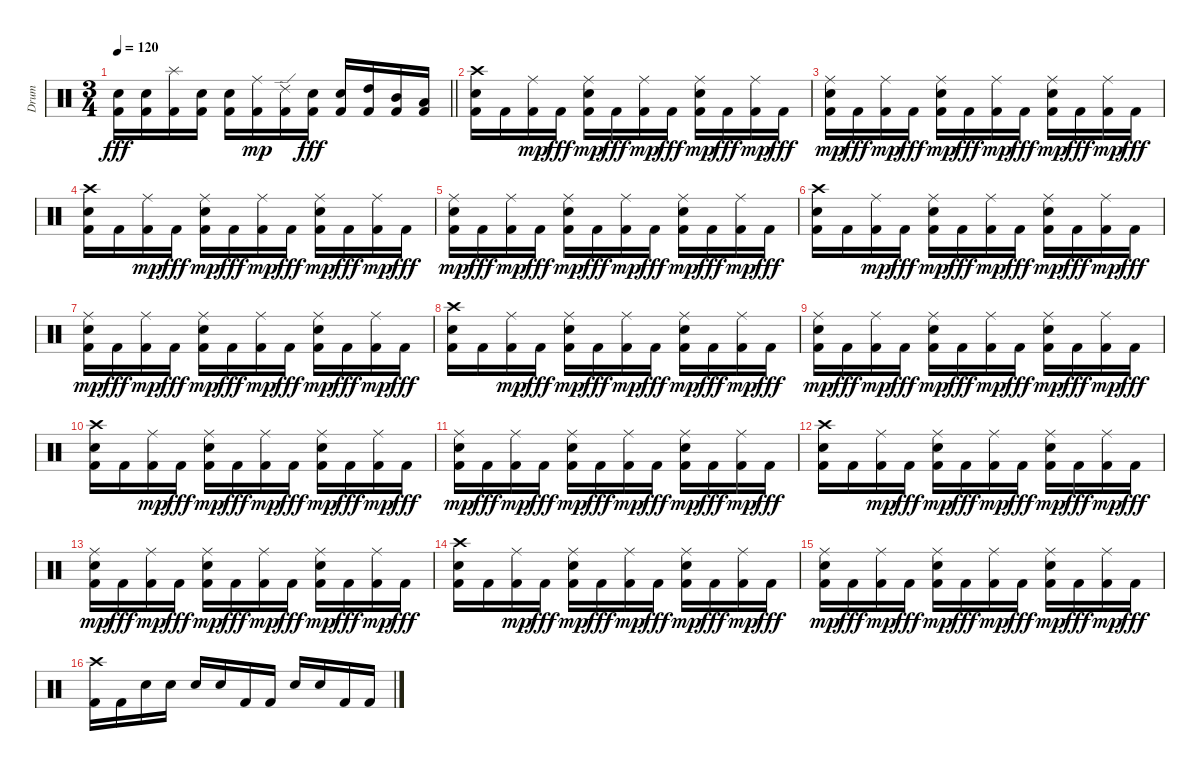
\track ("Drum" "Drum") {instrument percussion}
\staff {score}
\articulation defaults
\ts (3 4)
\tempo 120
\clef neutral
\barLineRight lightlight
\ks c
("Kick (hit) 2" "Electric Snare (hit)").16{dy fff} ("Kick (hit) 2" "Electric Snare (hit)").16 ("Kick (hit) 2" "Splash (hit)").16 ("Kick (hit) 2" "Electric Snare (hit)").16 ("Kick (hit) 2" "Electric Snare (hit)").16 ("Kick (hit) 2" "Ride (middle)").16{dy mp} ("Kick (hit) 2" "Ride (edge) 2").16 ("Kick (hit) 2" "Electric Snare (hit)").16{dy fff} ("Kick (hit) 2" "Electric Snare (hit)").16 ("Kick (hit) 2" "High Tom (hit)").16 ("Kick (hit) 2" "Mid Tom (hit)").16 ("Kick (hit) 2" "Low Tom (hit)").16 |
("Kick (hit) 2" "Electric Snare (hit)" "Crash high (hit)").16 "Kick (hit) 2".16 ("Kick (hit) 2" "Ride (middle)").16{dy mp} "Kick (hit) 2".16{dy fff} ("Kick (hit) 2" "Electric Snare (hit)" "Ride (middle)").16{dy mp} "Kick (hit) 2".16{dy fff} ("Kick (hit) 2" "Ride (middle)").16{dy mp} "Kick (hit) 2".16{dy fff} ("Kick (hit) 2" "Electric Snare (hit)" "Ride (middle)").16{dy mp} "Kick (hit) 2".16{dy fff} ("Kick (hit) 2" "Ride (middle)").16{dy mp} "Kick (hit) 2".16{dy fff} |
("Kick (hit) 2" "Electric Snare (hit)" "Ride (middle)").16{dy mp} "Kick (hit) 2".16{dy fff} ("Kick (hit) 2" "Ride (middle)").16{dy mp} "Kick (hit) 2".16{dy fff} ("Kick (hit) 2" "Electric Snare (hit)" "Ride (middle)").16{dy mp} "Kick (hit) 2".16{dy fff} ("Kick (hit) 2" "Ride (middle)").16{dy mp} "Kick (hit) 2".16{dy fff} ("Kick (hit) 2" "Electric Snare (hit)" "Ride (middle)").16{dy mp} "Kick (hit) 2".16{dy fff} ("Kick (hit) 2" "Ride (middle)").16{dy mp} "Kick (hit) 2".16{dy fff} |
("Kick (hit) 2" "Electric Snare (hit)" "Crash high (hit)").16 "Kick (hit) 2".16 ("Kick (hit) 2" "Ride (middle)").16{dy mp} "Kick (hit) 2".16{dy fff} ("Kick (hit) 2" "Electric Snare (hit)" "Ride (middle)").16{dy mp} "Kick (hit) 2".16{dy fff} ("Kick (hit) 2" "Ride (middle)").16{dy mp} "Kick (hit) 2".16{dy fff} ("Kick (hit) 2" "Electric Snare (hit)" "Ride (middle)").16{dy mp} "Kick (hit) 2".16{dy fff} ("Kick (hit) 2" "Ride (middle)").16{dy mp} "Kick (hit) 2".16{dy fff} |
("Kick (hit) 2" "Electric Snare (hit)" "Ride (middle)").16{dy mp} "Kick (hit) 2".16{dy fff} ("Kick (hit) 2" "Ride (middle)").16{dy mp} "Kick (hit) 2".16{dy fff} ("Kick (hit) 2" "Electric Snare (hit)" "Ride (middle)").16{dy mp} "Kick (hit) 2".16{dy fff} ("Kick (hit) 2" "Ride (middle)").16{dy mp} "Kick (hit) 2".16{dy fff} ("Kick (hit) 2" "Electric Snare (hit)" "Ride (middle)").16{dy mp} "Kick (hit) 2".16{dy fff} ("Kick (hit) 2" "Ride (middle)").16{dy mp} "Kick (hit) 2".16{dy fff} |
("Kick (hit) 2" "Electric Snare (hit)" "Crash high (hit)").16 "Kick (hit) 2".16 ("Kick (hit) 2" "Ride (middle)").16{dy mp} "Kick (hit) 2".16{dy fff} ("Kick (hit) 2" "Electric Snare (hit)" "Ride (middle)").16{dy mp} "Kick (hit) 2".16{dy fff} ("Kick (hit) 2" "Ride (middle)").16{dy mp} "Kick (hit) 2".16{dy fff} ("Kick (hit) 2" "Electric Snare (hit)" "Ride (middle)").16{dy mp} "Kick (hit) 2".16{dy fff} ("Kick (hit) 2" "Ride (middle)").16{dy mp} "Kick (hit) 2".16{dy fff} |
("Kick (hit) 2" "Electric Snare (hit)" "Ride (middle)").16{dy mp} "Kick (hit) 2".16{dy fff} ("Kick (hit) 2" "Ride (middle)").16{dy mp} "Kick (hit) 2".16{dy fff} ("Kick (hit) 2" "Electric Snare (hit)" "Ride (middle)").16{dy mp} "Kick (hit) 2".16{dy fff} ("Kick (hit) 2" "Ride (middle)").16{dy mp} "Kick (hit) 2".16{dy fff} ("Kick (hit) 2" "Electric Snare (hit)" "Ride (middle)").16{dy mp} "Kick (hit) 2".16{dy fff} ("Kick (hit) 2" "Ride (middle)").16{dy mp} "Kick (hit) 2".16{dy fff} |
("Kick (hit) 2" "Electric Snare (hit)" "Crash high (hit)").16 "Kick (hit) 2".16 ("Kick (hit) 2" "Ride (middle)").16{dy mp} "Kick (hit) 2".16{dy fff} ("Kick (hit) 2" "Electric Snare (hit)" "Ride (middle)").16{dy mp} "Kick (hit) 2".16{dy fff} ("Kick (hit) 2" "Ride (middle)").16{dy mp} "Kick (hit) 2".16{dy fff} ("Kick (hit) 2" "Electric Snare (hit)" "Ride (middle)").16{dy mp} "Kick (hit) 2".16{dy fff} ("Kick (hit) 2" "Ride (middle)").16{dy mp} "Kick (hit) 2".16{dy fff} |
("Kick (hit) 2" "Electric Snare (hit)" "Ride (middle)").16{dy mp} "Kick (hit) 2".16{dy fff} ("Kick (hit) 2" "Ride (middle)").16{dy mp} "Kick (hit) 2".16{dy fff} ("Kick (hit) 2" "Electric Snare (hit)" "Ride (middle)").16{dy mp} "Kick (hit) 2".16{dy fff} ("Kick (hit) 2" "Ride (middle)").16{dy mp} "Kick (hit) 2".16{dy fff} ("Kick (hit) 2" "Electric Snare (hit)" "Ride (middle)").16{dy mp} "Kick (hit) 2".16{dy fff} ("Kick (hit) 2" "Ride (middle)").16{dy mp} "Kick (hit) 2".16{dy fff} |
("Kick (hit) 2" "Electric Snare (hit)" "Crash high (hit)").16 "Kick (hit) 2".16 ("Kick (hit) 2" "Ride (middle)").16{dy mp} "Kick (hit) 2".16{dy fff} ("Kick (hit) 2" "Electric Snare (hit)" "Ride (middle)").16{dy mp} "Kick (hit) 2".16{dy fff} ("Kick (hit) 2" "Ride (middle)").16{dy mp} "Kick (hit) 2".16{dy fff} ("Kick (hit) 2" "Electric Snare (hit)" "Ride (middle)").16{dy mp} "Kick (hit) 2".16{dy fff} ("Kick (hit) 2" "Ride (middle)").16{dy mp} "Kick (hit) 2".16{dy fff} |
("Kick (hit) 2" "Electric Snare (hit)" "Ride (middle)").16{dy mp} "Kick (hit) 2".16{dy fff} ("Kick (hit) 2" "Ride (middle)").16{dy mp} "Kick (hit) 2".16{dy fff} ("Kick (hit) 2" "Electric Snare (hit)" "Ride (middle)").16{dy mp} "Kick (hit) 2".16{dy fff} ("Kick (hit) 2" "Ride (middle)").16{dy mp} "Kick (hit) 2".16{dy fff} ("Kick (hit) 2" "Electric Snare (hit)" "Ride (middle)").16{dy mp} "Kick (hit) 2".16{dy fff} ("Kick (hit) 2" "Ride (middle)").16{dy mp} "Kick (hit) 2".16{dy fff} |
("Kick (hit) 2" "Electric Snare (hit)" "Crash high (hit)").16 "Kick (hit) 2".16 ("Kick (hit) 2" "Ride (middle)").16{dy mp} "Kick (hit) 2".16{dy fff} ("Kick (hit) 2" "Electric Snare (hit)" "Ride (middle)").16{dy mp} "Kick (hit) 2".16{dy fff} ("Kick (hit) 2" "Ride (middle)").16{dy mp} "Kick (hit) 2".16{dy fff} ("Kick (hit) 2" "Electric Snare (hit)" "Ride (middle)").16{dy mp} "Kick (hit) 2".16{dy fff} ("Kick (hit) 2" "Ride (middle)").16{dy mp} "Kick (hit) 2".16{dy fff} |
("Kick (hit) 2" "Electric Snare (hit)" "Ride (middle)").16{dy mp} "Kick (hit) 2".16{dy fff} ("Kick (hit) 2" "Ride (middle)").16{dy mp} "Kick (hit) 2".16{dy fff} ("Kick (hit) 2" "Electric Snare (hit)" "Ride (middle)").16{dy mp} "Kick (hit) 2".16{dy fff} ("Kick (hit) 2" "Ride (middle)").16{dy mp} "Kick (hit) 2".16{dy fff} ("Kick (hit) 2" "Electric Snare (hit)" "Ride (middle)").16{dy mp} "Kick (hit) 2".16{dy fff} ("Kick (hit) 2" "Ride (middle)").16{dy mp} "Kick (hit) 2".16{dy fff} |
("Kick (hit) 2" "Electric Snare (hit)" "Crash high (hit)").16 "Kick (hit) 2".16 ("Kick (hit) 2" "Ride (middle)").16{dy mp} "Kick (hit) 2".16{dy fff} ("Kick (hit) 2" "Electric Snare (hit)" "Ride (middle)").16{dy mp} "Kick (hit) 2".16{dy fff} ("Kick (hit) 2" "Ride (middle)").16{dy mp} "Kick (hit) 2".16{dy fff} ("Kick (hit) 2" "Electric Snare (hit)" "Ride (middle)").16{dy mp} "Kick (hit) 2".16{dy fff} ("Kick (hit) 2" "Ride (middle)").16{dy mp} "Kick (hit) 2".16{dy fff} |
("Kick (hit) 2" "Electric Snare (hit)" "Ride (middle)").16{dy mp} "Kick (hit) 2".16{dy fff} ("Kick (hit) 2" "Ride (middle)").16{dy mp} "Kick (hit) 2".16{dy fff} ("Kick (hit) 2" "Electric Snare (hit)" "Ride (middle)").16{dy mp} "Kick (hit) 2".16{dy fff} ("Kick (hit) 2" "Ride (middle)").16{dy mp} "Kick (hit) 2".16{dy fff} ("Kick (hit) 2" "Electric Snare (hit)" "Ride (middle)").16{dy mp} "Kick (hit) 2".16{dy fff} ("Kick (hit) 2" "Ride (middle)").16{dy mp} "Kick (hit) 2".16{dy fff} |
("Kick (hit) 2" "Crash high (hit)").16 "Kick (hit) 2".16 "Electric Snare (hit)".16 "Electric Snare (hit)".16 "Electric Snare (hit)".16 "Electric Snare (hit)".16 "Kick (hit) 2".16 "Kick (hit) 2".16 "Electric Snare (hit)".16 "Electric Snare (hit)".16 "Kick (hit) 2".16 "Kick (hit) 2".16
